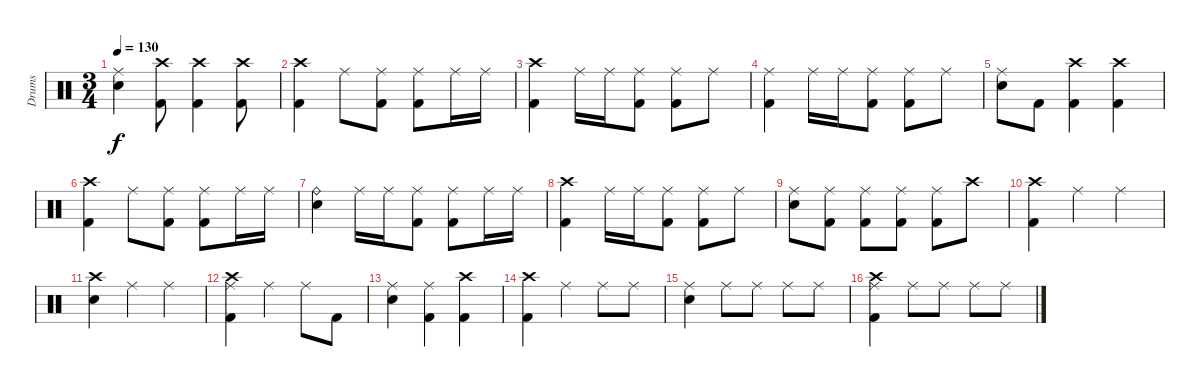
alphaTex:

\track ("Drums" "Drums") {instrument percussion}
\staff {score}
\articulation defaults
\ts (3 4)
\tempo 130
\clef neutral
\ks c
("Ride (middle)" "Snare (hit) 2").4{dy f} ("Crash high (hit)" "Kick (hit) 2").8 ("Crash high (hit)" "Kick (hit) 2").4 ("Crash high (hit)" "Kick (hit) 2").8 |
("Crash high (hit)" "Kick (hit) 2").4 "Ride (middle)".8 ("Ride (middle)" "Kick (hit) 2").8 ("Ride (middle)" "Kick (hit) 2").8 "Ride (middle)".16 "Ride (middle)".16 |
("Crash high (hit)" "Kick (hit) 2").4 "Ride (middle)".16 "Ride (middle)".16 ("Ride (middle)" "Kick (hit) 2").8 ("Ride (middle)" "Kick (hit) 2").8 "Ride (middle)".8 |
("Ride (middle)" "Kick (hit) 2").4 "Ride (middle)".16 "Ride (middle)".16 ("Ride (middle)" "Kick (hit) 2").8 ("Ride (middle)" "Kick (hit) 2").8 "Ride (middle)".8 |
("Ride (middle)" "Snare (hit) 2").8 "Kick (hit) 2".8 ("Crash high (hit)" "Kick (hit) 2").4 ("Crash high (hit)" "Kick (hit) 2").4 |
("Crash high (hit)" "Kick (hit) 2").4 "Ride (middle)".8 ("Ride (middle)" "Kick (hit) 2").8 ("Ride (middle)" "Kick (hit) 2").8 "Ride (middle)".16 "Ride (middle)".16 |
("Ride (bell)" "Snare (hit) 2").4 "Ride (middle)".16 "Ride (middle)".16 ("Ride (middle)" "Kick (hit) 2").8 ("Ride (middle)" "Kick (hit) 2").8 "Ride (middle)".16 "Ride (middle)".16 |
("Crash high (hit)" "Kick (hit) 2").4 "Ride (middle)".16 "Ride (middle)".16 ("Ride (middle)" "Kick (hit) 2").8 ("Ride (middle)" "Kick (hit) 2").8 "Ride (middle)".8 |
("Ride (middle)" "Snare (hit) 2").8 ("Ride (middle)" "Kick (hit) 2").8 ("Ride (middle)" "Kick (hit) 2").8 ("Ride (middle)" "Kick (hit) 2").8 ("Ride (middle)" "Kick (hit) 2").8 "Crash high (hit)".8 |
("Crash high (hit)" "Kick (hit) 2").4 "Ride (middle)".4 "Ride (middle)".4 |
("Crash high (hit)" "Snare (hit) 2").4 "Ride (middle)".4 "Ride (middle)".4 |
("Crash high (hit)" "Ride (middle)" "Kick (hit) 2").4 "Ride (middle)".4 "Ride (middle)".8 "Kick (hit) 2".8 |
("Ride (middle)" "Snare (hit) 2").4 ("Ride (middle)" "Kick (hit) 2").4 ("Crash high (hit)" "Kick (hit) 2").4 |
("Crash high (hit)" "Kick (hit) 2").4 "Ride (middle)".4 "Ride (middle)".8 "Ride (middle)".8 |
("Ride (middle)" "Snare (hit) 2").4 "Ride (middle)".8 "Ride (middle)".8 "Ride (middle)".8 "Ride (middle)".8 |
("Crash high (hit)" "Ride (middle)" "Kick (hit) 2").4 "Ride (middle)".8 "Ride (middle)".8 "Ride (middle)".8 "Ride (middle)".8
